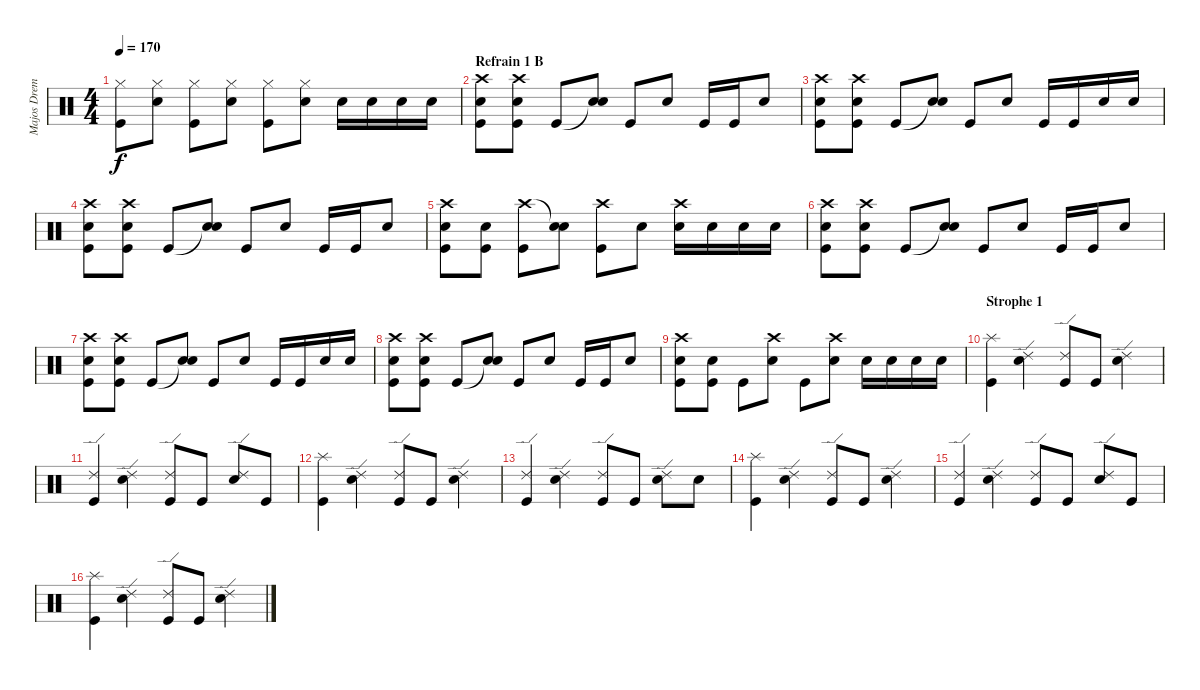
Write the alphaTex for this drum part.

\track ("Majos Dremmelei" "Majos Drem") {instrument percussion}
\staff {score}
\articulation defaults
\ts (4 4)
\tempo 170
\clef neutral
\ks c
("Hi-Hat (closed)" "Kick (hit)").8{dy f} ("Hi-Hat (closed)" "Electric Snare (hit)").8 ("Hi-Hat (closed)" "Kick (hit)").8 ("Hi-Hat (closed)" "Electric Snare (hit)").8 ("Hi-Hat (closed)" "Kick (hit)").8 ("Hi-Hat (closed)" "Electric Snare (hit)").8 "Electric Snare (hit)".16 "Electric Snare (hit)".16 "Electric Snare (hit)".16 "Electric Snare (hit)".16 |
\section ("" "Refrain 1 B")
("Crash high (hit)" "Electric Snare (hit)" "Kick (hit)").8 ("Crash high (hit)" "Electric Snare (hit)" "Kick (hit)").8 "Kick (hit)".8 ("Snare (hit)"{t} "Electric Snare (hit)").8 "Kick (hit)".8 "Electric Snare (hit)".8 "Kick (hit)".16 "Kick (hit)".16 "Electric Snare (hit)".8 |
("Crash high (hit)" "Electric Snare (hit)" "Kick (hit)").8 ("Crash high (hit)" "Electric Snare (hit)" "Kick (hit)").8 "Kick (hit)".8 ("Snare (hit)"{t} "Electric Snare (hit)").8 "Kick (hit)".8 "Electric Snare (hit)".8 "Kick (hit)".16 "Kick (hit)".16 "Electric Snare (hit)".16 "Electric Snare (hit)".16 |
("Crash high (hit)" "Electric Snare (hit)" "Kick (hit)").8 ("Crash high (hit)" "Electric Snare (hit)" "Kick (hit)").8 "Kick (hit)".8 ("Snare (hit)"{t} "Electric Snare (hit)").8 "Kick (hit)".8 "Electric Snare (hit)".8 "Kick (hit)".16 "Kick (hit)".16 "Electric Snare (hit)".8 |
("Crash high (hit)" "Electric Snare (hit)" "Kick (hit)").8 ("Electric Snare (hit)" "Kick (hit)").8 ("Crash high (hit)" "Kick (hit)").8 ("Snare (hit)"{t} "Electric Snare (hit)").8 ("Crash high (hit)" "Kick (hit)").8 "Electric Snare (hit)".8 ("Crash high (hit)" "Electric Snare (hit)").16 "Electric Snare (hit)".16 "Electric Snare (hit)".16 "Electric Snare (hit)".16 |
("Crash high (hit)" "Electric Snare (hit)" "Kick (hit)").8 ("Crash high (hit)" "Electric Snare (hit)" "Kick (hit)").8 "Kick (hit)".8 ("Snare (hit)"{t} "Electric Snare (hit)").8 "Kick (hit)".8 "Electric Snare (hit)".8 "Kick (hit)".16 "Kick (hit)".16 "Electric Snare (hit)".8 |
("Crash high (hit)" "Electric Snare (hit)" "Kick (hit)").8 ("Crash high (hit)" "Electric Snare (hit)" "Kick (hit)").8 "Kick (hit)".8 ("Snare (hit)"{t} "Electric Snare (hit)").8 "Kick (hit)".8 "Electric Snare (hit)".8 "Kick (hit)".16 "Kick (hit)".16 "Electric Snare (hit)".16 "Electric Snare (hit)".16 |
("Crash high (hit)" "Electric Snare (hit)" "Kick (hit)").8 ("Crash high (hit)" "Electric Snare (hit)" "Kick (hit)").8 "Kick (hit)".8 ("Snare (hit)"{t} "Electric Snare (hit)").8 "Kick (hit)".8 "Electric Snare (hit)".8 "Kick (hit)".16 "Kick (hit)".16 "Electric Snare (hit)".8 |
("Crash high (hit)" "Electric Snare (hit)" "Kick (hit)").8 ("Electric Snare (hit)" "Kick (hit)").8 "Kick (hit)".8 ("Crash high (hit)" "Electric Snare (hit)").8 "Kick (hit)".8 ("Crash high (hit)" "Electric Snare (hit)").8 "Electric Snare (hit)".16 "Electric Snare (hit)".16 "Electric Snare (hit)".16 "Electric Snare (hit)".16 |
\section ("" "Strophe 1")
("Splash (hit)" "Kick (hit)").4 ("Ride (edge) 2" "Electric Snare (hit)").4 ("Ride (edge) 2" "Kick (hit)").8 "Kick (hit)".8 ("Ride (edge) 2" "Electric Snare (hit)").4 |
("Ride (edge) 2" "Kick (hit)").4 ("Ride (edge) 2" "Electric Snare (hit)").4 ("Ride (edge) 2" "Kick (hit)").8 "Kick (hit)".8 ("Ride (edge) 2" "Electric Snare (hit)").8 "Kick (hit)".8 |
("Splash (hit)" "Kick (hit)").4 ("Ride (edge) 2" "Electric Snare (hit)").4 ("Ride (edge) 2" "Kick (hit)").8 "Kick (hit)".8 ("Ride (edge) 2" "Electric Snare (hit)").4 |
("Ride (edge) 2" "Kick (hit)").4 ("Ride (edge) 2" "Electric Snare (hit)").4 ("Ride (edge) 2" "Kick (hit)").8 "Kick (hit)".8 ("Ride (edge) 2" "Electric Snare (hit)").8 "Electric Snare (hit)".8 |
("Splash (hit)" "Kick (hit)").4 ("Ride (edge) 2" "Electric Snare (hit)").4 ("Ride (edge) 2" "Kick (hit)").8 "Kick (hit)".8 ("Ride (edge) 2" "Electric Snare (hit)").4 |
("Ride (edge) 2" "Kick (hit)").4 ("Ride (edge) 2" "Electric Snare (hit)").4 ("Ride (edge) 2" "Kick (hit)").8 "Kick (hit)".8 ("Ride (edge) 2" "Electric Snare (hit)").8 "Kick (hit)".8 |
("Splash (hit)" "Kick (hit)").4 ("Ride (edge) 2" "Electric Snare (hit)").4 ("Ride (edge) 2" "Kick (hit)").8 "Kick (hit)".8 ("Ride (edge) 2" "Electric Snare (hit)").4
